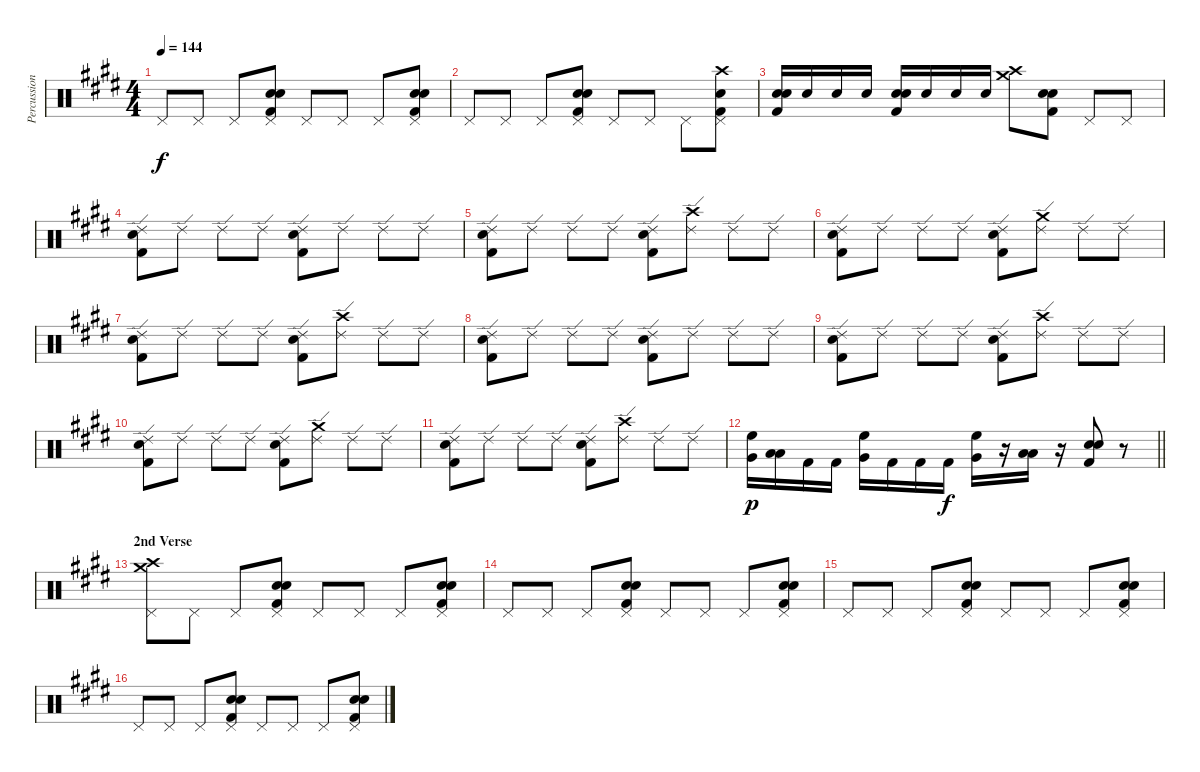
\track ("Percussion" "Percussion") {instrument percussion}
\staff {score}
\articulation defaults
\ts (4 4)
\tempo 144
\clef neutral
\ks e "Pedal Hi-Hat (hit)".8{dy f} "Pedal Hi-Hat (hit)".8 "Pedal Hi-Hat (hit)".8
("Pedal Hi-Hat (hit)" "Snare (hit) 2" "Snare (hit) 2" "Kick (hit) 2").8 "Pedal Hi-Hat (hit)".8 "Pedal Hi-Hat (hit)".8 "Pedal Hi-Hat (hit)".8 ("Pedal Hi-Hat (hit)" "Snare (hit) 2" "Snare (hit) 2" "Kick (hit) 2").8 |
\ks c#minor "Pedal Hi-Hat (hit)".8 "Pedal Hi-Hat (hit)".8 "Pedal Hi-Hat (hit)".8
("Pedal Hi-Hat (hit)" "Snare (hit) 2" "Snare (hit) 2" "Kick (hit) 2").8 "Pedal Hi-Hat (hit)".8 "Pedal Hi-Hat (hit)".8 "Pedal Hi-Hat (hit)".8 ("Pedal Hi-Hat (hit)" "Snare (hit) 2" "Crash high (hit)" "Kick (hit) 2").8 |
("Snare (hit) 2" "Snare (hit) 2" "Kick (hit) 2").16 "Snare (hit) 2".16 "Snare (hit) 2".16 "Snare (hit) 2".16 ("Snare (hit) 2" "Snare (hit) 2" "Kick (hit) 2").16 "Snare (hit) 2".16 "Snare (hit) 2".16 "Snare (hit) 2".16 ("Crash high (hit)" "Crash medium (hit)").8 ("Snare (hit) 2" "Snare (hit) 2" "Kick (hit) 2").8 "Pedal Hi-Hat (hit)".8 "Pedal Hi-Hat (hit)".8 |
\ks e
("Ride (edge) 2" "Snare (hit) 2" "Kick (hit) 2").8 "Ride (edge) 2".8 "Ride (edge) 2".8 "Ride (edge) 2".8 ("Ride (edge) 2" "Snare (hit) 2" "Kick (hit) 2").8 "Ride (edge) 2".8 "Ride (edge) 2".8 "Ride (edge) 2".8 |
\ks c#minor
("Ride (edge) 2" "Snare (hit) 2" "Kick (hit) 2").8 "Ride (edge) 2".8 "Ride (edge) 2".8 "Ride (edge) 2".8 ("Ride (edge) 2" "Snare (hit) 2" "Kick (hit) 2").8 ("Ride (edge) 2" "Crash high (hit)").8 "Ride (edge) 2".8 "Ride (edge) 2".8 |
("Ride (edge) 2" "Snare (hit) 2" "Kick (hit) 2").8 "Ride (edge) 2".8 "Ride (edge) 2".8 "Ride (edge) 2".8 ("Ride (edge) 2" "Snare (hit) 2" "Kick (hit) 2").8 ("Ride (edge) 2" "Crash medium (hit)").8 "Ride (edge) 2".8 "Ride (edge) 2".8 |
("Ride (edge) 2" "Snare (hit) 2" "Kick (hit) 2").8 "Ride (edge) 2".8 "Ride (edge) 2".8 "Ride (edge) 2".8 ("Ride (edge) 2" "Snare (hit) 2" "Kick (hit) 2").8 ("Ride (edge) 2" "Crash high (hit)").8 "Ride (edge) 2".8 "Ride (edge) 2".8 |
\ks e
("Ride (edge) 2" "Snare (hit) 2" "Kick (hit) 2").8 "Ride (edge) 2".8 "Ride (edge) 2".8 "Ride (edge) 2".8 ("Ride (edge) 2" "Snare (hit) 2" "Kick (hit) 2").8 "Ride (edge) 2".8 "Ride (edge) 2".8 "Ride (edge) 2".8 |
\ks c#minor
("Ride (edge) 2" "Snare (hit) 2" "Kick (hit) 2").8 "Ride (edge) 2".8 "Ride (edge) 2".8 "Ride (edge) 2".8 ("Ride (edge) 2" "Snare (hit) 2" "Kick (hit) 2").8 ("Ride (edge) 2" "Crash high (hit)").8 "Ride (edge) 2".8 "Ride (edge) 2".8 |
("Ride (edge) 2" "Snare (hit) 2" "Kick (hit) 2").8 "Ride (edge) 2".8 "Ride (edge) 2".8 "Ride (edge) 2".8 ("Ride (edge) 2" "Snare (hit) 2" "Kick (hit) 2").8 ("Ride (edge) 2" "Crash medium (hit)").8 "Ride (edge) 2".8 "Ride (edge) 2".8 |
("Ride (edge) 2" "Snare (hit) 2" "Kick (hit) 2").8 "Ride (edge) 2".8 "Ride (edge) 2".8 "Ride (edge) 2".8 ("Ride (edge) 2" "Snare (hit) 2" "Kick (hit) 2").8 ("Ride (edge) 2" "Crash high (hit)").8 "Ride (edge) 2".8 "Ride (edge) 2".8 |
\barLineRight lightlight
("Very Low Tom (hit)" "High Floor Tom (hit)").16{dy p} ("Low Floor Tom (hit)" "Low Tom (hit)").16 "Kick (hit) 2".16 "Kick (hit) 2".16 ("Very Low Tom (hit)" "High Floor Tom (hit)").16 "Kick (hit) 2".16 "Kick (hit) 2".16 "Kick (hit) 2".16{dy f} ("Very Low Tom (hit)" "High Floor Tom (hit)").16 r.16 ("Low Floor Tom (hit)" "Low Tom (hit)").16 r.16 ("Snare (hit) 2" "Snare (hit) 2" "Kick (hit) 2").8 r.8 |
\section ("" "2nd Verse")
("Pedal Hi-Hat (hit)" "Crash high (hit)" "Crash medium (hit)").8 "Pedal Hi-Hat (hit)".8 "Pedal Hi-Hat (hit)".8 ("Pedal Hi-Hat (hit)" "Snare (hit) 2" "Snare (hit) 2" "Kick (hit) 2").8 "Pedal Hi-Hat (hit)".8 "Pedal Hi-Hat (hit)".8 "Pedal Hi-Hat (hit)".8 ("Pedal Hi-Hat (hit)" "Snare (hit) 2" "Snare (hit) 2" "Kick (hit) 2").8 |
\ks e "Pedal Hi-Hat (hit)".8 "Pedal Hi-Hat (hit)".8 "Pedal Hi-Hat (hit)".8
("Pedal Hi-Hat (hit)" "Snare (hit) 2" "Snare (hit) 2" "Kick (hit) 2").8 "Pedal Hi-Hat (hit)".8 "Pedal Hi-Hat (hit)".8 "Pedal Hi-Hat (hit)".8 ("Pedal Hi-Hat (hit)" "Snare (hit) 2" "Snare (hit) 2" "Kick (hit) 2").8 |
\ks c#minor "Pedal Hi-Hat (hit)".8 "Pedal Hi-Hat (hit)".8 "Pedal Hi-Hat (hit)".8
("Pedal Hi-Hat (hit)" "Snare (hit) 2" "Snare (hit) 2" "Kick (hit) 2").8 "Pedal Hi-Hat (hit)".8 "Pedal Hi-Hat (hit)".8 "Pedal Hi-Hat (hit)".8 ("Pedal Hi-Hat (hit)" "Snare (hit) 2" "Snare (hit) 2" "Kick (hit) 2").8 |
"Pedal Hi-Hat (hit)".8 "Pedal Hi-Hat (hit)".8 "Pedal Hi-Hat (hit)".8 ("Pedal Hi-Hat (hit)" "Snare (hit) 2" "Snare (hit) 2" "Kick (hit) 2").8 "Pedal Hi-Hat (hit)".8 "Pedal Hi-Hat (hit)".8 "Pedal Hi-Hat (hit)".8 ("Pedal Hi-Hat (hit)" "Snare (hit) 2" "Snare (hit) 2" "Kick (hit) 2").8
